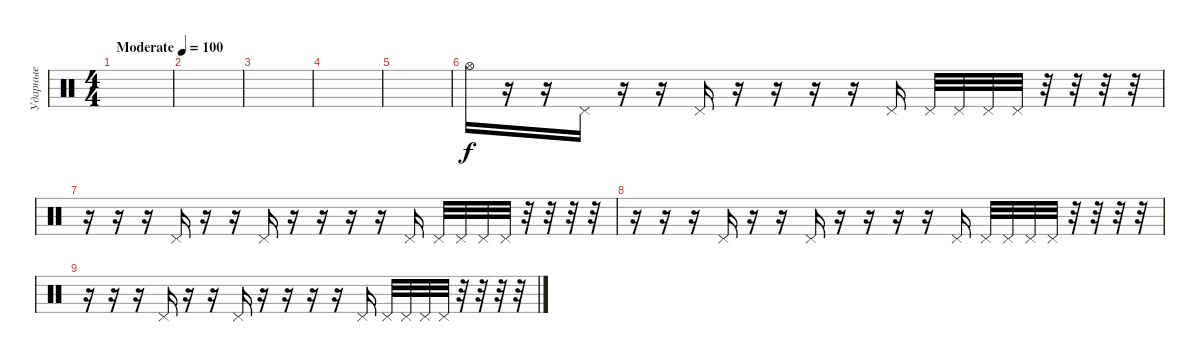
\track ("Ударные" "Ударные") {instrument percussion}
\staff {score}
\articulation defaults
\ts (4 4)
\tempo (100 "Moderate")
\clef neutral
\ks c
|
|
|
|
|
"Hi-Hat (open)".16 r.16 r.16 "Pedal Hi-Hat (hit)".16 r.16 r.16 "Pedal Hi-Hat (hit)".16 r.16 r.16 r.16 r.16 "Pedal Hi-Hat (hit)".16 "Pedal Hi-Hat (hit)".32 "Pedal Hi-Hat (hit)".32 "Pedal Hi-Hat (hit)".32 "Pedal Hi-Hat (hit)".32 r.32 r.32 r.32 r.32 |
r.16 r.16 r.16 "Pedal Hi-Hat (hit)".16 r.16 r.16 "Pedal Hi-Hat (hit)".16 r.16 r.16 r.16 r.16 "Pedal Hi-Hat (hit)".16 "Pedal Hi-Hat (hit)".32 "Pedal Hi-Hat (hit)".32 "Pedal Hi-Hat (hit)".32 "Pedal Hi-Hat (hit)".32 r.32 r.32 r.32 r.32 |
r.16 r.16 r.16 "Pedal Hi-Hat (hit)".16 r.16 r.16 "Pedal Hi-Hat (hit)".16 r.16 r.16 r.16 r.16 "Pedal Hi-Hat (hit)".16 "Pedal Hi-Hat (hit)".32 "Pedal Hi-Hat (hit)".32 "Pedal Hi-Hat (hit)".32 "Pedal Hi-Hat (hit)".32 r.32 r.32 r.32 r.32 |
r.16 r.16 r.16 "Pedal Hi-Hat (hit)".16 r.16 r.16 "Pedal Hi-Hat (hit)".16 r.16 r.16 r.16 r.16 "Pedal Hi-Hat (hit)".16 "Pedal Hi-Hat (hit)".32 "Pedal Hi-Hat (hit)".32 "Pedal Hi-Hat (hit)".32 "Pedal Hi-Hat (hit)".32 r.32 r.32 r.32 r.32
